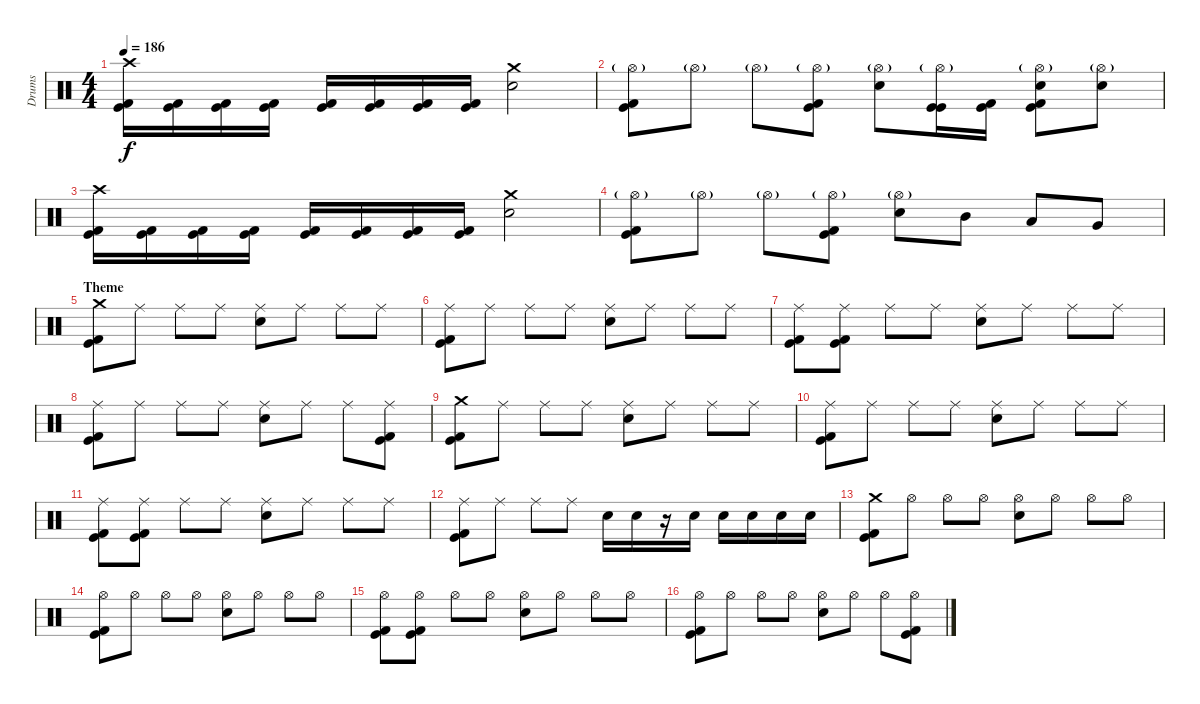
\track ("Drums" "Drums") {instrument percussion}
\staff {score}
\articulation defaults
\ts (4 4)
\tempo 186
\clef neutral
\ks c
("Crash high (hit)" "Kick (hit)" "Kick (hit) 2").16{dy f} ("Kick (hit)" "Kick (hit) 2").16 ("Kick (hit)" "Kick (hit) 2").16 ("Kick (hit)" "Kick (hit) 2").16 ("Kick (hit)" "Kick (hit) 2").16 ("Kick (hit)" "Kick (hit) 2").16 ("Kick (hit)" "Kick (hit) 2").16 ("Kick (hit)" "Kick (hit) 2").16 ("Crash medium (hit)" "Electric Snare (hit)").2 |
("Hi-Hat (open)"{g} "Kick (hit)" "Kick (hit) 2").8 "Hi-Hat (open)"{g}.8 "Hi-Hat (open)"{g}.8 ("Hi-Hat (open)"{g} "Kick (hit)" "Kick (hit) 2").8 ("Hi-Hat (open)"{g} "Electric Snare (hit)").8 ("Hi-Hat (open)"{g} "Kick (hit)" "Kick (hit)").16 ("Kick (hit)" "Kick (hit) 2").16 ("Hi-Hat (open)"{g} "Electric Snare (hit)" "Kick (hit)" "Kick (hit) 2").8 ("Hi-Hat (open)"{g} "Electric Snare (hit)").8 |
("Crash high (hit)" "Kick (hit)" "Kick (hit) 2").16 ("Kick (hit)" "Kick (hit) 2").16 ("Kick (hit)" "Kick (hit) 2").16 ("Kick (hit)" "Kick (hit) 2").16 ("Kick (hit)" "Kick (hit) 2").16 ("Kick (hit)" "Kick (hit) 2").16 ("Kick (hit)" "Kick (hit) 2").16 ("Kick (hit)" "Kick (hit) 2").16 ("Crash medium (hit)" "Electric Snare (hit)").2 |
("Hi-Hat (open)"{g} "Kick (hit)" "Kick (hit) 2").8 "Hi-Hat (open)"{g}.8 "Hi-Hat (open)"{g}.8 ("Hi-Hat (open)"{g} "Kick (hit)" "Kick (hit) 2").8 ("Hi-Hat (open)"{g} "Electric Snare (hit)").8 "Mid Tom (hit)".8 "Low Tom (hit)".8 "Very Low Tom (hit)".8 |
\section ("" "Theme")
("Crash medium (hit)" "Kick (hit)" "Kick (hit) 2").8 "Ride (middle)".8 "Ride (middle)".8 "Ride (middle)".8 ("Ride (middle)" "Electric Snare (hit)").8 "Ride (middle)".8 "Ride (middle)".8 "Ride (middle)".8 |
("Ride (middle)" "Kick (hit)" "Kick (hit) 2").8 "Ride (middle)".8 "Ride (middle)".8 "Ride (middle)".8 ("Ride (middle)" "Electric Snare (hit)").8 "Ride (middle)".8 "Ride (middle)".8 "Ride (middle)".8 |
("Ride (middle)" "Kick (hit)" "Kick (hit) 2").8 ("Ride (middle)" "Kick (hit)" "Kick (hit) 2").8 "Ride (middle)".8 "Ride (middle)".8 ("Ride (middle)" "Electric Snare (hit)").8 "Ride (middle)".8 "Ride (middle)".8 "Ride (middle)".8 |
("Ride (middle)" "Kick (hit)" "Kick (hit) 2").8 "Ride (middle)".8 "Ride (middle)".8 "Ride (middle)".8 ("Ride (middle)" "Electric Snare (hit)").8 "Ride (middle)".8 "Ride (middle)".8 ("Ride (middle)" "Kick (hit)" "Kick (hit) 2").8 |
("Crash medium (hit)" "Kick (hit)" "Kick (hit) 2").8 "Ride (middle)".8 "Ride (middle)".8 "Ride (middle)".8 ("Ride (middle)" "Electric Snare (hit)").8 "Ride (middle)".8 "Ride (middle)".8 "Ride (middle)".8 |
("Ride (middle)" "Kick (hit)" "Kick (hit) 2").8 "Ride (middle)".8 "Ride (middle)".8 "Ride (middle)".8 ("Ride (middle)" "Electric Snare (hit)").8 "Ride (middle)".8 "Ride (middle)".8 "Ride (middle)".8 |
("Ride (middle)" "Kick (hit)" "Kick (hit) 2").8 ("Ride (middle)" "Kick (hit)" "Kick (hit) 2").8 "Ride (middle)".8 "Ride (middle)".8 ("Ride (middle)" "Electric Snare (hit)").8 "Ride (middle)".8 "Ride (middle)".8 "Ride (middle)".8 |
("Ride (middle)" "Kick (hit)" "Kick (hit) 2").8 "Ride (middle)".8 "Ride (middle)".8 "Ride (middle)".8 "Electric Snare (hit)".16 "Electric Snare (hit)".16 r.16 "Electric Snare (hit)".16 "Electric Snare (hit)".16 "Electric Snare (hit)".16 "Electric Snare (hit)".16 "Electric Snare (hit)".16 |
("Crash medium (hit)" "Kick (hit)" "Kick (hit) 2").8 "Hi-Hat (open)".8 "Hi-Hat (open)".8 "Hi-Hat (open)".8 ("Hi-Hat (open)" "Electric Snare (hit)").8 "Hi-Hat (open)".8 "Hi-Hat (open)".8 "Hi-Hat (open)".8 |
("Hi-Hat (open)" "Kick (hit)" "Kick (hit) 2").8 "Hi-Hat (open)".8 "Hi-Hat (open)".8 "Hi-Hat (open)".8 ("Hi-Hat (open)" "Electric Snare (hit)").8 "Hi-Hat (open)".8 "Hi-Hat (open)".8 "Hi-Hat (open)".8 |
("Hi-Hat (open)" "Kick (hit)" "Kick (hit) 2").8 ("Hi-Hat (open)" "Kick (hit)" "Kick (hit) 2").8 "Hi-Hat (open)".8 "Hi-Hat (open)".8 ("Hi-Hat (open)" "Electric Snare (hit)").8 "Hi-Hat (open)".8 "Hi-Hat (open)".8 "Hi-Hat (open)".8 |
("Hi-Hat (open)" "Kick (hit)" "Kick (hit) 2").8 "Hi-Hat (open)".8 "Hi-Hat (open)".8 "Hi-Hat (open)".8 ("Hi-Hat (open)" "Electric Snare (hit)").8 "Hi-Hat (open)".8 "Hi-Hat (open)".8 ("Hi-Hat (open)" "Kick (hit)" "Kick (hit) 2").8
